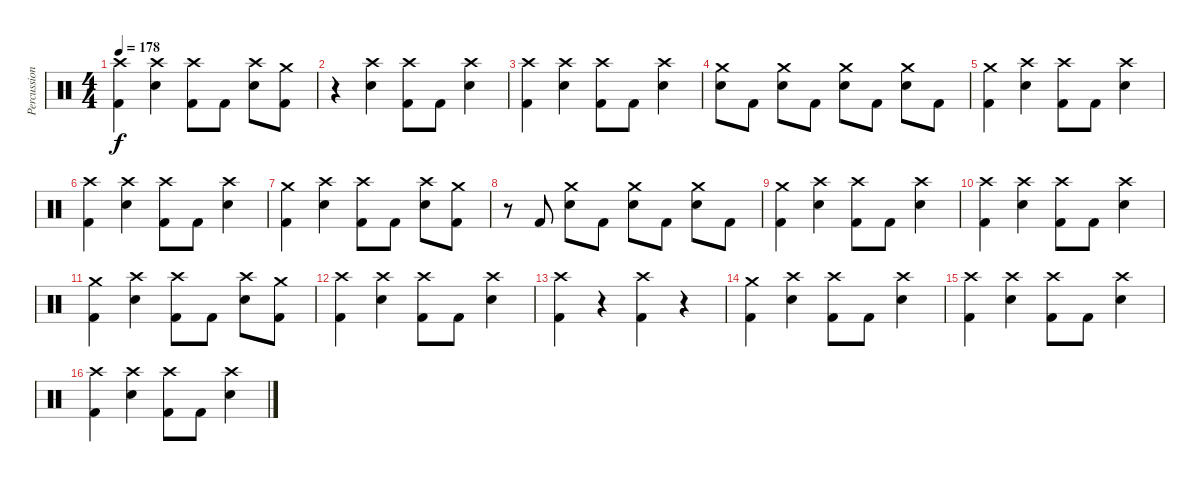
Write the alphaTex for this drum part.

\track ("Percussion" "Percussion") {instrument percussion}
\staff {score}
\articulation defaults
\ts (4 4)
\tempo 178
\clef neutral
\ks c
("Crash high (hit)" "Kick (hit) 2").4{dy f} ("Crash high (hit)" "Snare (hit) 2").4 ("Crash high (hit)" "Kick (hit) 2").8 "Kick (hit) 2".8 ("Crash high (hit)" "Snare (hit) 2").8 ("Crash medium (hit)" "Kick (hit) 2").8 |
r.4 ("Crash high (hit)" "Snare (hit) 2").4 ("Crash high (hit)" "Kick (hit) 2").8 "Kick (hit) 2".8 ("Crash high (hit)" "Snare (hit) 2").4 |
("Crash high (hit)" "Kick (hit) 2").4 ("Crash high (hit)" "Snare (hit) 2").4 ("Crash high (hit)" "Kick (hit) 2").8 "Kick (hit) 2".8 ("Crash high (hit)" "Snare (hit) 2").4 |
("Crash medium (hit)" "Snare (hit) 2").8 "Kick (hit) 2".8 ("Crash medium (hit)" "Snare (hit) 2").8 "Kick (hit) 2".8 ("Crash medium (hit)" "Snare (hit) 2").8 "Kick (hit) 2".8 ("Crash medium (hit)" "Snare (hit) 2").8 "Kick (hit) 2".8 |
("Crash medium (hit)" "Kick (hit) 2").4 ("Crash high (hit)" "Snare (hit) 2").4 ("Crash high (hit)" "Kick (hit) 2").8 "Kick (hit) 2".8 ("Crash high (hit)" "Snare (hit) 2").4 |
("Crash high (hit)" "Kick (hit) 2").4 ("Crash high (hit)" "Snare (hit) 2").4 ("Crash high (hit)" "Kick (hit) 2").8 "Kick (hit) 2".8 ("Crash high (hit)" "Snare (hit) 2").4 |
("Crash medium (hit)" "Kick (hit) 2").4 ("Crash high (hit)" "Snare (hit) 2").4 ("Crash high (hit)" "Kick (hit) 2").8 "Kick (hit) 2".8 ("Crash high (hit)" "Snare (hit) 2").8 ("Crash medium (hit)" "Kick (hit) 2").8 |
r.8 "Kick (hit) 2".8 ("Crash medium (hit)" "Snare (hit) 2").8 "Kick (hit) 2".8 ("Crash medium (hit)" "Snare (hit) 2").8 "Kick (hit) 2".8 ("Crash medium (hit)" "Snare (hit) 2").8 "Kick (hit) 2".8 |
("Crash medium (hit)" "Kick (hit) 2").4 ("Crash high (hit)" "Snare (hit) 2").4 ("Crash high (hit)" "Kick (hit) 2").8 "Kick (hit) 2".8 ("Crash high (hit)" "Snare (hit) 2").4 |
("Crash high (hit)" "Kick (hit) 2").4 ("Crash high (hit)" "Snare (hit) 2").4 ("Crash high (hit)" "Kick (hit) 2").8 "Kick (hit) 2".8 ("Crash high (hit)" "Snare (hit) 2").4 |
("Crash medium (hit)" "Kick (hit) 2").4 ("Crash high (hit)" "Snare (hit) 2").4 ("Crash high (hit)" "Kick (hit) 2").8 "Kick (hit) 2".8 ("Crash high (hit)" "Snare (hit) 2").8 ("Crash medium (hit)" "Kick (hit) 2").8 |
("Crash high (hit)" "Kick (hit) 2").4 ("Crash high (hit)" "Snare (hit) 2").4 ("Crash high (hit)" "Kick (hit) 2").8 "Kick (hit) 2".8 ("Crash high (hit)" "Snare (hit) 2").4 |
("Crash high (hit)" "Kick (hit) 2").4 r.4 ("Crash high (hit)" "Kick (hit) 2").4 r.4 |
("Crash medium (hit)" "Kick (hit) 2").4 ("Crash high (hit)" "Snare (hit) 2").4 ("Crash high (hit)" "Kick (hit) 2").8 "Kick (hit) 2".8 ("Crash high (hit)" "Snare (hit) 2").4 |
("Crash high (hit)" "Kick (hit) 2").4 ("Crash high (hit)" "Snare (hit) 2").4 ("Crash high (hit)" "Kick (hit) 2").8 "Kick (hit) 2".8 ("Crash high (hit)" "Snare (hit) 2").4 |
("Crash high (hit)" "Kick (hit) 2").4 ("Crash high (hit)" "Snare (hit) 2").4 ("Crash high (hit)" "Kick (hit) 2").8 "Kick (hit) 2".8 ("Crash high (hit)" "Snare (hit) 2").4
